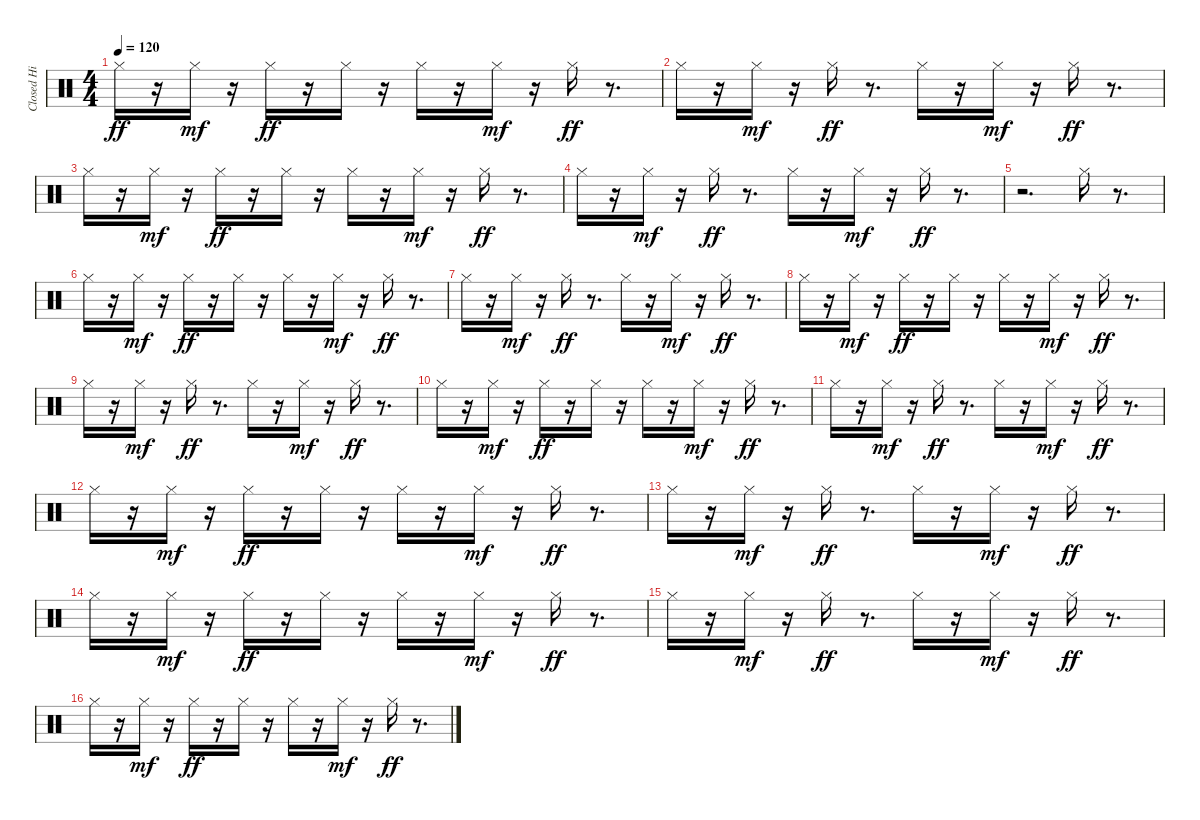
\track ("Closed Hi Hat       " "Closed Hi ") {instrument percussion}
\staff {score}
\articulation defaults
\ts (4 4)
\tempo 120
\clef neutral
\ks c "Hi-Hat (closed)".16{dy ff}
r.16 "Hi-Hat (closed)".16{dy mf} r.16 "Hi-Hat (closed)".16{dy ff} r.16 "Hi-Hat (closed)".16 r.16 "Hi-Hat (closed)".16 r.16 "Hi-Hat (closed)".16{dy mf} r.16 "Hi-Hat (closed)".16{dy ff} r.8{d} |
"Hi-Hat (closed)".16 r.16 "Hi-Hat (closed)".16{dy mf} r.16 "Hi-Hat (closed)".16{dy ff} r.8{d} "Hi-Hat (closed)".16 r.16 "Hi-Hat (closed)".16{dy mf} r.16 "Hi-Hat (closed)".16{dy ff} r.8{d} |
"Hi-Hat (closed)".16 r.16 "Hi-Hat (closed)".16{dy mf} r.16 "Hi-Hat (closed)".16{dy ff} r.16 "Hi-Hat (closed)".16 r.16 "Hi-Hat (closed)".16 r.16 "Hi-Hat (closed)".16{dy mf} r.16 "Hi-Hat (closed)".16{dy ff} r.8{d} |
"Hi-Hat (closed)".16 r.16 "Hi-Hat (closed)".16{dy mf} r.16 "Hi-Hat (closed)".16{dy ff} r.8{d} "Hi-Hat (closed)".16 r.16 "Hi-Hat (closed)".16{dy mf} r.16 "Hi-Hat (closed)".16{dy ff} r.8{d} |
r.2{d} "Hi-Hat (closed)".16 r.8{d} |
"Hi-Hat (closed)".16 r.16 "Hi-Hat (closed)".16{dy mf} r.16 "Hi-Hat (closed)".16{dy ff} r.16 "Hi-Hat (closed)".16 r.16 "Hi-Hat (closed)".16 r.16 "Hi-Hat (closed)".16{dy mf} r.16 "Hi-Hat (closed)".16{dy ff} r.8{d} |
"Hi-Hat (closed)".16 r.16 "Hi-Hat (closed)".16{dy mf} r.16 "Hi-Hat (closed)".16{dy ff} r.8{d} "Hi-Hat (closed)".16 r.16 "Hi-Hat (closed)".16{dy mf} r.16 "Hi-Hat (closed)".16{dy ff} r.8{d} |
"Hi-Hat (closed)".16 r.16 "Hi-Hat (closed)".16{dy mf} r.16 "Hi-Hat (closed)".16{dy ff} r.16 "Hi-Hat (closed)".16 r.16 "Hi-Hat (closed)".16 r.16 "Hi-Hat (closed)".16{dy mf} r.16 "Hi-Hat (closed)".16{dy ff} r.8{d} |
"Hi-Hat (closed)".16 r.16 "Hi-Hat (closed)".16{dy mf} r.16 "Hi-Hat (closed)".16{dy ff} r.8{d} "Hi-Hat (closed)".16 r.16 "Hi-Hat (closed)".16{dy mf} r.16 "Hi-Hat (closed)".16{dy ff} r.8{d} |
"Hi-Hat (closed)".16 r.16 "Hi-Hat (closed)".16{dy mf} r.16 "Hi-Hat (closed)".16{dy ff} r.16 "Hi-Hat (closed)".16 r.16 "Hi-Hat (closed)".16 r.16 "Hi-Hat (closed)".16{dy mf} r.16 "Hi-Hat (closed)".16{dy ff} r.8{d} |
"Hi-Hat (closed)".16 r.16 "Hi-Hat (closed)".16{dy mf} r.16 "Hi-Hat (closed)".16{dy ff} r.8{d} "Hi-Hat (closed)".16 r.16 "Hi-Hat (closed)".16{dy mf} r.16 "Hi-Hat (closed)".16{dy ff} r.8{d} |
"Hi-Hat (closed)".16 r.16 "Hi-Hat (closed)".16{dy mf} r.16 "Hi-Hat (closed)".16{dy ff} r.16 "Hi-Hat (closed)".16 r.16 "Hi-Hat (closed)".16 r.16 "Hi-Hat (closed)".16{dy mf} r.16 "Hi-Hat (closed)".16{dy ff} r.8{d} |
"Hi-Hat (closed)".16 r.16 "Hi-Hat (closed)".16{dy mf} r.16 "Hi-Hat (closed)".16{dy ff} r.8{d} "Hi-Hat (closed)".16 r.16 "Hi-Hat (closed)".16{dy mf} r.16 "Hi-Hat (closed)".16{dy ff} r.8{d} |
"Hi-Hat (closed)".16 r.16 "Hi-Hat (closed)".16{dy mf} r.16 "Hi-Hat (closed)".16{dy ff} r.16 "Hi-Hat (closed)".16 r.16 "Hi-Hat (closed)".16 r.16 "Hi-Hat (closed)".16{dy mf} r.16 "Hi-Hat (closed)".16{dy ff} r.8{d} |
"Hi-Hat (closed)".16 r.16 "Hi-Hat (closed)".16{dy mf} r.16 "Hi-Hat (closed)".16{dy ff} r.8{d} "Hi-Hat (closed)".16 r.16 "Hi-Hat (closed)".16{dy mf} r.16 "Hi-Hat (closed)".16{dy ff} r.8{d} |
"Hi-Hat (closed)".16 r.16 "Hi-Hat (closed)".16{dy mf} r.16 "Hi-Hat (closed)".16{dy ff} r.16 "Hi-Hat (closed)".16 r.16 "Hi-Hat (closed)".16 r.16 "Hi-Hat (closed)".16{dy mf} r.16 "Hi-Hat (closed)".16{dy ff} r.8{d}
